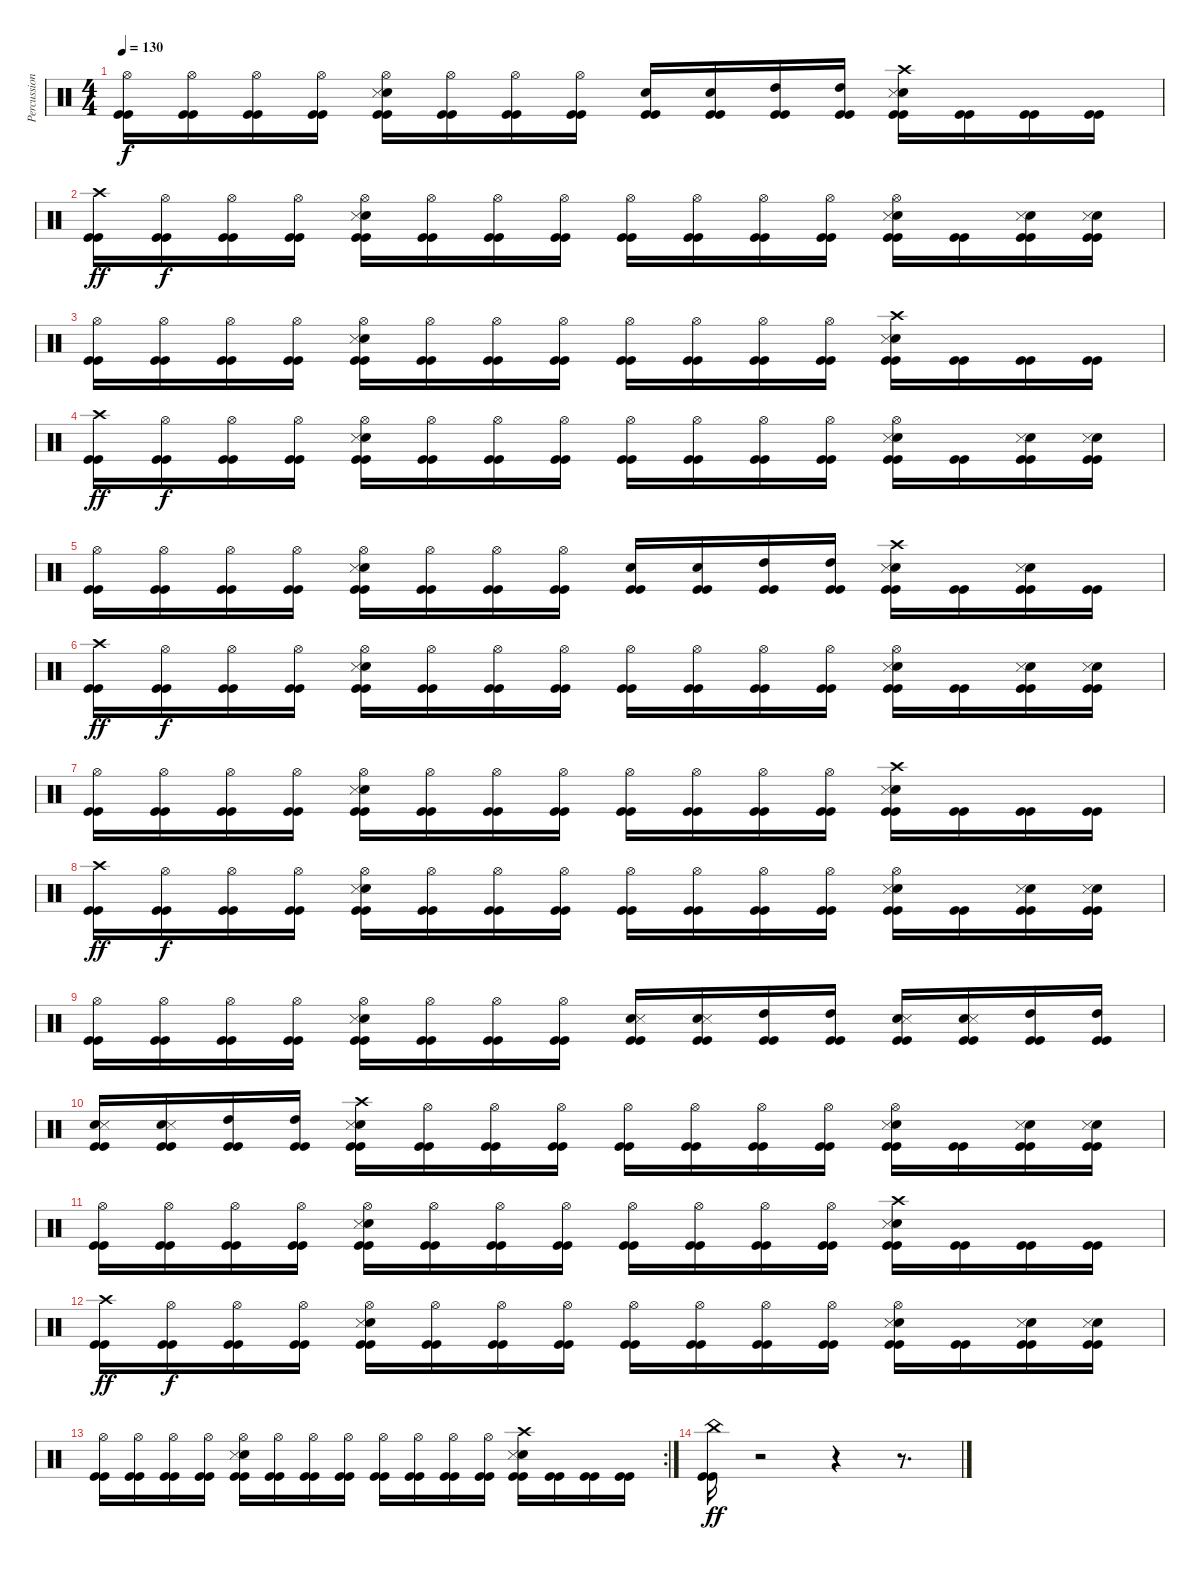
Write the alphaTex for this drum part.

\track ("Percussion" "Percussion") {instrument percussion}
\staff {score}
\articulation defaults
\ts (4 4)
\tempo 130
\clef neutral
\ks c
("Hi-Hat (open)" "Kick (hit)" "Kick (hit)").16{dy f} ("Hi-Hat (open)" "Kick (hit)" "Kick (hit)").16 ("Hi-Hat (open)" "Kick (hit)" "Kick (hit)").16 ("Hi-Hat (open)" "Kick (hit)" "Kick (hit)").16 ("Snare (hit) 2" "Snare (side stick) 3" "Hi-Hat (open)" "Kick (hit)" "Kick (hit)").16 ("Hi-Hat (open)" "Kick (hit)" "Kick (hit)").16 ("Hi-Hat (open)" "Kick (hit)" "Kick (hit)").16 ("Hi-Hat (open)" "Kick (hit)" "Kick (hit)").16 ("Snare (hit) 2" "Kick (hit)" "Kick (hit)").16 ("Snare (hit) 2" "Kick (hit)" "Kick (hit)").16 ("High Tom (hit)" "Kick (hit)" "Kick (hit)").16 ("High Tom (hit)" "Kick (hit)" "Kick (hit)").16 ("Snare (hit) 2" "Snare (side stick) 3" "Crash high (hit)" "Kick (hit)" "Kick (hit)").16 ("Kick (hit)" "Kick (hit)").16 ("Kick (hit)" "Kick (hit)").16 ("Kick (hit)" "Kick (hit)").16 |
("Crash high (hit)" "Kick (hit)" "Kick (hit)").16{dy ff} ("Hi-Hat (open)" "Kick (hit)" "Kick (hit)").16{dy f} ("Hi-Hat (open)" "Kick (hit)" "Kick (hit)").16 ("Hi-Hat (open)" "Kick (hit)" "Kick (hit)").16 ("Snare (hit) 2" "Snare (side stick) 3" "Hi-Hat (open)" "Kick (hit)" "Kick (hit)").16 ("Hi-Hat (open)" "Kick (hit)" "Kick (hit)").16 ("Hi-Hat (open)" "Kick (hit)" "Kick (hit)").16 ("Hi-Hat (open)" "Kick (hit)" "Kick (hit)").16 ("Hi-Hat (open)" "Kick (hit)" "Kick (hit)").16 ("Hi-Hat (open)" "Kick (hit)" "Kick (hit)").16 ("Hi-Hat (open)" "Kick (hit)" "Kick (hit)").16 ("Hi-Hat (open)" "Kick (hit)" "Kick (hit)").16 ("Snare (hit) 2" "Snare (side stick) 3" "Hi-Hat (open)" "Kick (hit)" "Kick (hit)").16 ("Kick (hit)" "Kick (hit)").16 ("Snare (hit) 2" "Snare (side stick) 3" "Kick (hit)" "Kick (hit)").16 ("Snare (hit) 2" "Snare (side stick) 3" "Kick (hit)" "Kick (hit)").16 |
("Hi-Hat (open)" "Kick (hit)" "Kick (hit)").16 ("Hi-Hat (open)" "Kick (hit)" "Kick (hit)").16 ("Hi-Hat (open)" "Kick (hit)" "Kick (hit)").16 ("Hi-Hat (open)" "Kick (hit)" "Kick (hit)").16 ("Snare (hit) 2" "Snare (side stick) 3" "Hi-Hat (open)" "Kick (hit)" "Kick (hit)").16 ("Hi-Hat (open)" "Kick (hit)" "Kick (hit)").16 ("Hi-Hat (open)" "Kick (hit)" "Kick (hit)").16 ("Hi-Hat (open)" "Kick (hit)" "Kick (hit)").16 ("Hi-Hat (open)" "Kick (hit)" "Kick (hit)").16 ("Hi-Hat (open)" "Kick (hit)" "Kick (hit)").16 ("Hi-Hat (open)" "Kick (hit)" "Kick (hit)").16 ("Hi-Hat (open)" "Kick (hit)" "Kick (hit)").16 ("Snare (hit) 2" "Snare (side stick) 3" "Crash high (hit)" "Kick (hit)" "Kick (hit)").16 ("Kick (hit)" "Kick (hit)").16 ("Kick (hit)" "Kick (hit)").16 ("Kick (hit)" "Kick (hit)").16 |
("Crash high (hit)" "Kick (hit)" "Kick (hit)").16{dy ff} ("Hi-Hat (open)" "Kick (hit)" "Kick (hit)").16{dy f} ("Hi-Hat (open)" "Kick (hit)" "Kick (hit)").16 ("Hi-Hat (open)" "Kick (hit)" "Kick (hit)").16 ("Snare (hit) 2" "Snare (side stick) 3" "Hi-Hat (open)" "Kick (hit)" "Kick (hit)").16 ("Hi-Hat (open)" "Kick (hit)" "Kick (hit)").16 ("Hi-Hat (open)" "Kick (hit)" "Kick (hit)").16 ("Hi-Hat (open)" "Kick (hit)" "Kick (hit)").16 ("Hi-Hat (open)" "Kick (hit)" "Kick (hit)").16 ("Hi-Hat (open)" "Kick (hit)" "Kick (hit)").16 ("Hi-Hat (open)" "Kick (hit)" "Kick (hit)").16 ("Hi-Hat (open)" "Kick (hit)" "Kick (hit)").16 ("Snare (hit) 2" "Snare (side stick) 3" "Hi-Hat (open)" "Kick (hit)" "Kick (hit)").16 ("Kick (hit)" "Kick (hit)").16 ("Snare (hit) 2" "Snare (side stick) 3" "Kick (hit)" "Kick (hit)").16 ("Snare (hit) 2" "Snare (side stick) 3" "Kick (hit)" "Kick (hit)").16 |
("Hi-Hat (open)" "Kick (hit)" "Kick (hit)").16 ("Hi-Hat (open)" "Kick (hit)" "Kick (hit)").16 ("Hi-Hat (open)" "Kick (hit)" "Kick (hit)").16 ("Hi-Hat (open)" "Kick (hit)" "Kick (hit)").16 ("Snare (hit) 2" "Snare (side stick) 3" "Hi-Hat (open)" "Kick (hit)" "Kick (hit)").16 ("Hi-Hat (open)" "Kick (hit)" "Kick (hit)").16 ("Hi-Hat (open)" "Kick (hit)" "Kick (hit)").16 ("Hi-Hat (open)" "Kick (hit)" "Kick (hit)").16 ("Snare (hit) 2" "Kick (hit)" "Kick (hit)").16 ("Snare (hit) 2" "Kick (hit)" "Kick (hit)").16 ("High Tom (hit)" "Kick (hit)" "Kick (hit)").16 ("High Tom (hit)" "Kick (hit)" "Kick (hit)").16 ("Snare (hit) 2" "Snare (side stick) 3" "Crash high (hit)" "Kick (hit)" "Kick (hit)").16 ("Kick (hit)" "Kick (hit)").16 ("Snare (hit) 2" "Snare (side stick) 3" "Kick (hit)" "Kick (hit)").16 ("Kick (hit)" "Kick (hit)").16 |
("Crash high (hit)" "Kick (hit)" "Kick (hit)").16{dy ff} ("Hi-Hat (open)" "Kick (hit)" "Kick (hit)").16{dy f} ("Hi-Hat (open)" "Kick (hit)" "Kick (hit)").16 ("Hi-Hat (open)" "Kick (hit)" "Kick (hit)").16 ("Snare (hit) 2" "Snare (side stick) 3" "Hi-Hat (open)" "Kick (hit)" "Kick (hit)").16 ("Hi-Hat (open)" "Kick (hit)" "Kick (hit)").16 ("Hi-Hat (open)" "Kick (hit)" "Kick (hit)").16 ("Hi-Hat (open)" "Kick (hit)" "Kick (hit)").16 ("Hi-Hat (open)" "Kick (hit)" "Kick (hit)").16 ("Hi-Hat (open)" "Kick (hit)" "Kick (hit)").16 ("Hi-Hat (open)" "Kick (hit)" "Kick (hit)").16 ("Hi-Hat (open)" "Kick (hit)" "Kick (hit)").16 ("Snare (hit) 2" "Snare (side stick) 3" "Hi-Hat (open)" "Kick (hit)" "Kick (hit)").16 ("Kick (hit)" "Kick (hit)").16 ("Snare (hit) 2" "Snare (side stick) 3" "Kick (hit)" "Kick (hit)").16 ("Snare (hit) 2" "Snare (side stick) 3" "Kick (hit)" "Kick (hit)").16 |
("Hi-Hat (open)" "Kick (hit)" "Kick (hit)").16 ("Hi-Hat (open)" "Kick (hit)" "Kick (hit)").16 ("Hi-Hat (open)" "Kick (hit)" "Kick (hit)").16 ("Hi-Hat (open)" "Kick (hit)" "Kick (hit)").16 ("Snare (hit) 2" "Snare (side stick) 3" "Hi-Hat (open)" "Kick (hit)" "Kick (hit)").16 ("Hi-Hat (open)" "Kick (hit)" "Kick (hit)").16 ("Hi-Hat (open)" "Kick (hit)" "Kick (hit)").16 ("Hi-Hat (open)" "Kick (hit)" "Kick (hit)").16 ("Hi-Hat (open)" "Kick (hit)" "Kick (hit)").16 ("Hi-Hat (open)" "Kick (hit)" "Kick (hit)").16 ("Hi-Hat (open)" "Kick (hit)" "Kick (hit)").16 ("Hi-Hat (open)" "Kick (hit)" "Kick (hit)").16 ("Snare (hit) 2" "Snare (side stick) 3" "Crash high (hit)" "Kick (hit)" "Kick (hit)").16 ("Kick (hit)" "Kick (hit)").16 ("Kick (hit)" "Kick (hit)").16 ("Kick (hit)" "Kick (hit)").16 |
("Crash high (hit)" "Kick (hit)" "Kick (hit)").16{dy ff} ("Hi-Hat (open)" "Kick (hit)" "Kick (hit)").16{dy f} ("Hi-Hat (open)" "Kick (hit)" "Kick (hit)").16 ("Hi-Hat (open)" "Kick (hit)" "Kick (hit)").16 ("Snare (hit) 2" "Snare (side stick) 3" "Hi-Hat (open)" "Kick (hit)" "Kick (hit)").16 ("Hi-Hat (open)" "Kick (hit)" "Kick (hit)").16 ("Hi-Hat (open)" "Kick (hit)" "Kick (hit)").16 ("Hi-Hat (open)" "Kick (hit)" "Kick (hit)").16 ("Hi-Hat (open)" "Kick (hit)" "Kick (hit)").16 ("Hi-Hat (open)" "Kick (hit)" "Kick (hit)").16 ("Hi-Hat (open)" "Kick (hit)" "Kick (hit)").16 ("Hi-Hat (open)" "Kick (hit)" "Kick (hit)").16 ("Snare (hit) 2" "Snare (side stick) 3" "Hi-Hat (open)" "Kick (hit)" "Kick (hit)").16 ("Kick (hit)" "Kick (hit)").16 ("Snare (hit) 2" "Snare (side stick) 3" "Kick (hit)" "Kick (hit)").16 ("Snare (hit) 2" "Snare (side stick) 3" "Kick (hit)" "Kick (hit)").16 |
("Hi-Hat (open)" "Kick (hit)" "Kick (hit)").16 ("Hi-Hat (open)" "Kick (hit)" "Kick (hit)").16 ("Hi-Hat (open)" "Kick (hit)" "Kick (hit)").16 ("Hi-Hat (open)" "Kick (hit)" "Kick (hit)").16 ("Snare (hit) 2" "Snare (side stick) 3" "Hi-Hat (open)" "Kick (hit)" "Kick (hit)").16 ("Hi-Hat (open)" "Kick (hit)" "Kick (hit)").16 ("Hi-Hat (open)" "Kick (hit)" "Kick (hit)").16 ("Hi-Hat (open)" "Kick (hit)" "Kick (hit)").16 ("Snare (hit) 2" "Snare (side stick) 3" "Kick (hit)" "Kick (hit)").16 ("Snare (hit) 2" "Snare (side stick) 3" "Kick (hit)" "Kick (hit)").16 ("High Tom (hit)" "Kick (hit)" "Kick (hit)").16 ("High Tom (hit)" "Kick (hit)" "Kick (hit)").16 ("Snare (hit) 2" "Snare (side stick) 3" "Kick (hit)" "Kick (hit)").16 ("Snare (hit) 2" "Snare (side stick) 3" "Kick (hit)" "Kick (hit)").16 ("High Tom (hit)" "Kick (hit)" "Kick (hit)").16 ("High Tom (hit)" "Kick (hit)" "Kick (hit)").16 |
("Snare (hit) 2" "Snare (side stick) 3" "Kick (hit)" "Kick (hit)").16 ("Snare (hit) 2" "Snare (side stick) 3" "Kick (hit)" "Kick (hit)").16 ("High Tom (hit)" "Kick (hit)" "Kick (hit)").16 ("High Tom (hit)" "Kick (hit)" "Kick (hit)").16 ("Snare (hit) 2" "Snare (side stick) 3" "Crash high (hit)" "Kick (hit)" "Kick (hit)").16 ("Hi-Hat (open)" "Kick (hit)" "Kick (hit)").16 ("Hi-Hat (open)" "Kick (hit)" "Kick (hit)").16 ("Hi-Hat (open)" "Kick (hit)" "Kick (hit)").16 ("Hi-Hat (open)" "Kick (hit)" "Kick (hit)").16 ("Hi-Hat (open)" "Kick (hit)" "Kick (hit)").16 ("Hi-Hat (open)" "Kick (hit)" "Kick (hit)").16 ("Hi-Hat (open)" "Kick (hit)" "Kick (hit)").16 ("Snare (hit) 2" "Snare (side stick) 3" "Hi-Hat (open)" "Kick (hit)" "Kick (hit)").16 ("Kick (hit)" "Kick (hit)").16 ("Snare (hit) 2" "Snare (side stick) 3" "Kick (hit)" "Kick (hit)").16 ("Snare (hit) 2" "Snare (side stick) 3" "Kick (hit)" "Kick (hit)").16 |
("Hi-Hat (open)" "Kick (hit)" "Kick (hit)").16 ("Hi-Hat (open)" "Kick (hit)" "Kick (hit)").16 ("Hi-Hat (open)" "Kick (hit)" "Kick (hit)").16 ("Hi-Hat (open)" "Kick (hit)" "Kick (hit)").16 ("Snare (hit) 2" "Snare (side stick) 3" "Hi-Hat (open)" "Kick (hit)" "Kick (hit)").16 ("Hi-Hat (open)" "Kick (hit)" "Kick (hit)").16 ("Hi-Hat (open)" "Kick (hit)" "Kick (hit)").16 ("Hi-Hat (open)" "Kick (hit)" "Kick (hit)").16 ("Hi-Hat (open)" "Kick (hit)" "Kick (hit)").16 ("Hi-Hat (open)" "Kick (hit)" "Kick (hit)").16 ("Hi-Hat (open)" "Kick (hit)" "Kick (hit)").16 ("Hi-Hat (open)" "Kick (hit)" "Kick (hit)").16 ("Snare (hit) 2" "Snare (side stick) 3" "Crash high (hit)" "Kick (hit)" "Kick (hit)").16 ("Kick (hit)" "Kick (hit)").16 ("Kick (hit)" "Kick (hit)").16 ("Kick (hit)" "Kick (hit)").16 |
("Crash high (hit)" "Kick (hit)" "Kick (hit)").16{dy ff} ("Hi-Hat (open)" "Kick (hit)" "Kick (hit)").16{dy f} ("Hi-Hat (open)" "Kick (hit)" "Kick (hit)").16 ("Hi-Hat (open)" "Kick (hit)" "Kick (hit)").16 ("Snare (hit) 2" "Snare (side stick) 3" "Hi-Hat (open)" "Kick (hit)" "Kick (hit)").16 ("Hi-Hat (open)" "Kick (hit)" "Kick (hit)").16 ("Hi-Hat (open)" "Kick (hit)" "Kick (hit)").16 ("Hi-Hat (open)" "Kick (hit)" "Kick (hit)").16 ("Hi-Hat (open)" "Kick (hit)" "Kick (hit)").16 ("Hi-Hat (open)" "Kick (hit)" "Kick (hit)").16 ("Hi-Hat (open)" "Kick (hit)" "Kick (hit)").16 ("Hi-Hat (open)" "Kick (hit)" "Kick (hit)").16 ("Snare (hit) 2" "Snare (side stick) 3" "Hi-Hat (open)" "Kick (hit)" "Kick (hit)").16 ("Kick (hit)" "Kick (hit)").16 ("Snare (hit) 2" "Snare (side stick) 3" "Kick (hit)" "Kick (hit)").16 ("Snare (hit) 2" "Snare (side stick) 3" "Kick (hit)" "Kick (hit)").16 |
\rc 2
("Hi-Hat (open)" "Kick (hit)" "Kick (hit)").16 ("Hi-Hat (open)" "Kick (hit)" "Kick (hit)").16 ("Hi-Hat (open)" "Kick (hit)" "Kick (hit)").16 ("Hi-Hat (open)" "Kick (hit)" "Kick (hit)").16 ("Snare (hit) 2" "Snare (side stick) 3" "Hi-Hat (open)" "Kick (hit)" "Kick (hit)").16 ("Hi-Hat (open)" "Kick (hit)" "Kick (hit)").16 ("Hi-Hat (open)" "Kick (hit)" "Kick (hit)").16 ("Hi-Hat (open)" "Kick (hit)" "Kick (hit)").16 ("Hi-Hat (open)" "Kick (hit)" "Kick (hit)").16 ("Hi-Hat (open)" "Kick (hit)" "Kick (hit)").16 ("Hi-Hat (open)" "Kick (hit)" "Kick (hit)").16 ("Hi-Hat (open)" "Kick (hit)" "Kick (hit)").16 ("Snare (hit) 2" "Snare (side stick) 3" "Crash high (hit)" "Kick (hit)" "Kick (hit)").16 ("Kick (hit)" "Kick (hit)").16 ("Kick (hit)" "Kick (hit)").16 ("Kick (hit)" "Kick (hit)").16 |
("China (hit)" "Kick (hit)" "Kick (hit)").16{dy ff} r.2 r.4 r.8{d}
